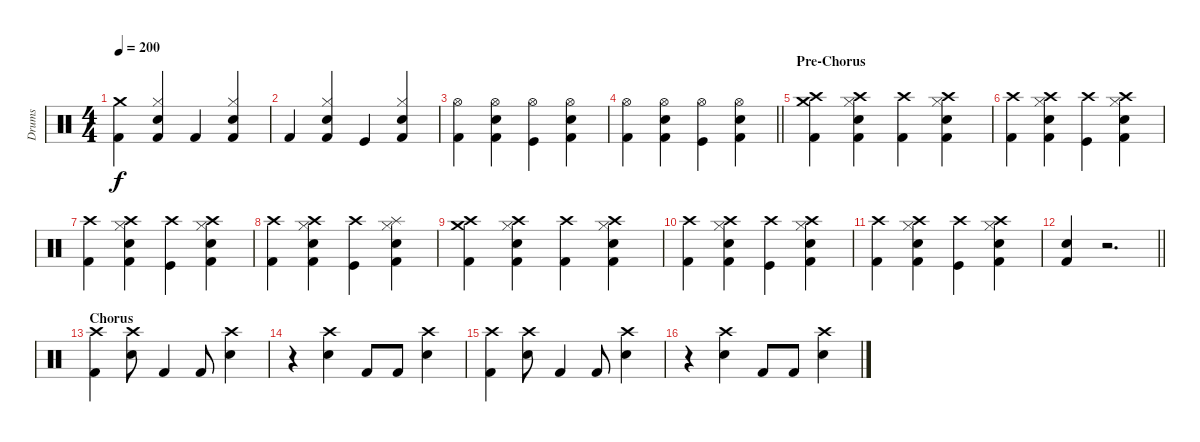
\track ("Drums" "Drums") {instrument percussion}
\staff {score}
\articulation defaults
\ts (4 4)
\tempo 200
\clef neutral
\ks c
("Crash medium (hit)" "Kick (hit) 2").4{dy f} ("Hi-Hat (closed)" "Snare (hit) 2" "Kick (hit) 2").4 "Kick (hit) 2".4 ("Hi-Hat (closed)" "Snare (hit) 2" "Kick (hit) 2").4 |
"Kick (hit) 2".4 ("Hi-Hat (closed)" "Snare (hit) 2" "Kick (hit) 2").4 "Kick (hit)".4 ("Hi-Hat (closed)" "Snare (hit) 2" "Kick (hit) 2").4 |
("Hi-Hat (open)" "Kick (hit) 2").4 ("Hi-Hat (open)" "Snare (hit) 2" "Kick (hit) 2").4 ("Hi-Hat (open)" "Kick (hit)").4 ("Hi-Hat (open)" "Snare (hit) 2" "Kick (hit) 2").4 |
\barLineRight lightlight
("Hi-Hat (open)" "Kick (hit) 2").4 ("Hi-Hat (open)" "Snare (hit) 2" "Kick (hit) 2").4 ("Hi-Hat (open)" "Kick (hit)").4 ("Hi-Hat (open)" "Snare (hit) 2" "Kick (hit) 2").4 |
\section ("" "Pre-Chorus")
("Crash high (hit)" "Crash medium (hit)" "Kick (hit) 2").4 ("Crash high (hit)" "Hi-Hat (closed)" "Snare (hit) 2" "Kick (hit) 2").4 ("Crash high (hit)" "Kick (hit) 2").4 ("Crash high (hit)" "Hi-Hat (closed)" "Snare (hit) 2" "Kick (hit) 2").4 |
("Crash high (hit)" "Kick (hit) 2").4 ("Crash high (hit)" "Hi-Hat (closed)" "Snare (hit) 2" "Kick (hit) 2").4 ("Crash high (hit)" "Kick (hit)").4 ("Crash high (hit)" "Hi-Hat (closed)" "Snare (hit) 2" "Kick (hit) 2").4 |
("Crash high (hit)" "Kick (hit) 2").4 ("Crash high (hit)" "Hi-Hat (closed)" "Snare (hit) 2" "Kick (hit) 2").4 ("Crash high (hit)" "Kick (hit)").4 ("Crash high (hit)" "Hi-Hat (closed)" "Snare (hit) 2" "Kick (hit) 2").4 |
("Crash high (hit)" "Kick (hit) 2").4 ("Crash high (hit)" "Hi-Hat (closed)" "Snare (hit) 2" "Kick (hit) 2").4 ("Crash high (hit)" "Kick (hit)").4 ("Splash (hit)" "Hi-Hat (closed)" "Snare (hit) 2" "Kick (hit) 2").4 |
("Crash high (hit)" "Crash medium (hit)" "Kick (hit) 2").4 ("Crash high (hit)" "Hi-Hat (closed)" "Snare (hit) 2" "Kick (hit) 2").4 ("Crash high (hit)" "Kick (hit) 2").4 ("Crash high (hit)" "Hi-Hat (closed)" "Snare (hit) 2" "Kick (hit) 2").4 |
("Crash high (hit)" "Kick (hit) 2").4 ("Crash high (hit)" "Hi-Hat (closed)" "Snare (hit) 2" "Kick (hit) 2").4 ("Crash high (hit)" "Kick (hit)").4 ("Crash high (hit)" "Hi-Hat (closed)" "Snare (hit) 2" "Kick (hit) 2").4 |
("Crash high (hit)" "Kick (hit) 2").4 ("Crash high (hit)" "Hi-Hat (closed)" "Snare (hit) 2" "Kick (hit) 2").4 ("Crash high (hit)" "Kick (hit)").4 ("Crash high (hit)" "Hi-Hat (closed)" "Snare (hit) 2" "Kick (hit) 2").4 |
\barLineRight lightlight
("Kick (hit) 2" "Snare (hit) 2").4 r.2{d} |
\section ("" "Chorus")
("Crash high (hit)" "Kick (hit) 2").4 ("Crash high (hit)" "Electric Snare (hit)").8 "Kick (hit) 2".4 "Kick (hit) 2".8 ("Crash high (hit)" "Electric Snare (hit)").4 |
r.4 ("Crash high (hit)" "Electric Snare (hit)").4 "Kick (hit) 2".8 "Kick (hit) 2".8 ("Crash high (hit)" "Electric Snare (hit)").4 |
("Crash high (hit)" "Kick (hit) 2").4 ("Crash high (hit)" "Electric Snare (hit)").8 "Kick (hit) 2".4 "Kick (hit) 2".8 ("Crash high (hit)" "Electric Snare (hit)").4 |
r.4 ("Crash high (hit)" "Electric Snare (hit)").4 "Kick (hit) 2".8 "Kick (hit) 2".8 ("Crash high (hit)" "Electric Snare (hit)").4
